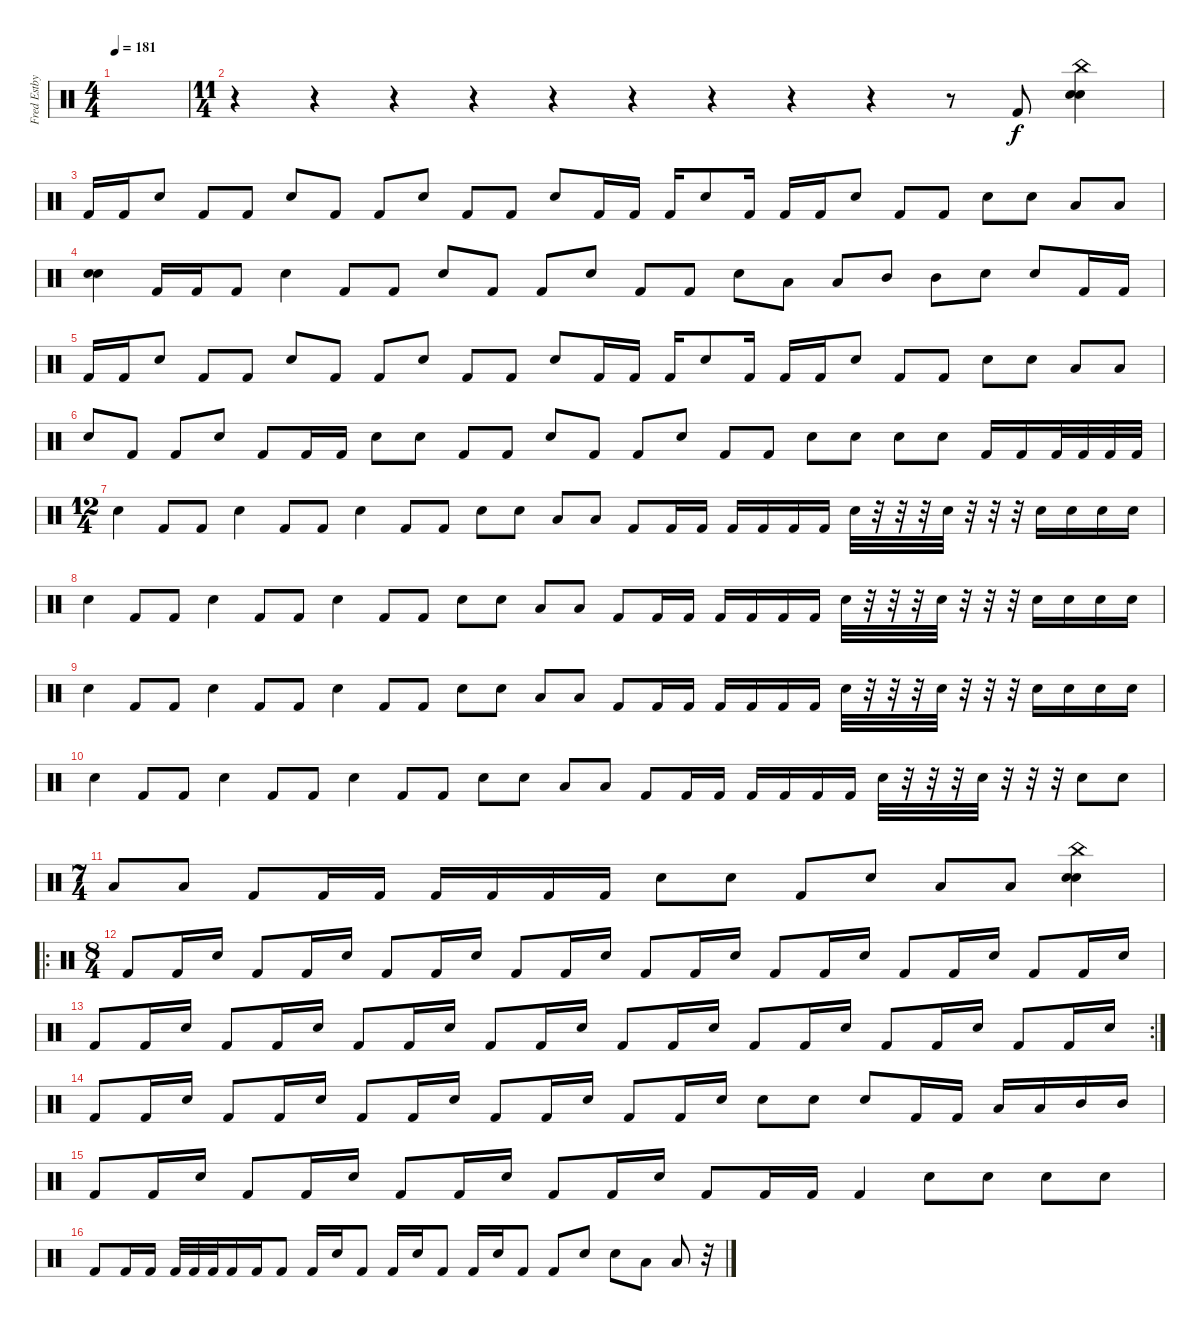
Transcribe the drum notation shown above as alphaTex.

\track ("Fred Estby" "Fred Estby") {instrument percussion}
\staff {score}
\articulation defaults
\ts (4 4)
\tempo 181
\clef neutral
\ks c
|
\ts (11 4)
r.4 r.4 r.4 r.4 r.4 r.4 r.4 r.4 r.4 r.8 "Kick (hit) 2".8 ("Electric Snare (hit)" "Electric Snare (hit)" "China (hit)").4 |
"Kick (hit) 2".16 "Kick (hit) 2".16 "Electric Snare (hit)".8 "Kick (hit) 2".8 "Kick (hit) 2".8 "Electric Snare (hit)".8 "Kick (hit) 2".8 "Kick (hit) 2".8 "Electric Snare (hit)".8 "Kick (hit) 2".8 "Kick (hit) 2".8 "Electric Snare (hit)".8 "Kick (hit) 2".16 "Kick (hit) 2".16 "Kick (hit) 2".16 "Electric Snare (hit)".8 "Kick (hit) 2".16 "Kick (hit) 2".16 "Kick (hit) 2".16 "Electric Snare (hit)".8 "Kick (hit) 2".8 "Kick (hit) 2".8 "Electric Snare (hit)".8 "Electric Snare (hit)".8 "Low Tom (hit)".8 "Low Tom (hit)".8 |
("Electric Snare (hit)" "Electric Snare (hit)").4 "Kick (hit) 2".16 "Kick (hit) 2".16 "Kick (hit) 2".8 "Electric Snare (hit)".4 "Kick (hit) 2".8 "Kick (hit) 2".8 "Electric Snare (hit)".8 "Kick (hit) 2".8 "Kick (hit) 2".8 "Electric Snare (hit)".8 "Kick (hit) 2".8 "Kick (hit) 2".8 "Electric Snare (hit)".8 "Low Tom (hit)".8 "Low Tom (hit)".8 "Mid Tom (hit)".8 "Mid Tom (hit)".8 "Electric Snare (hit)".8 "Electric Snare (hit)".8 "Kick (hit) 2".16 "Kick (hit) 2".16 |
"Kick (hit) 2".16 "Kick (hit) 2".16 "Electric Snare (hit)".8 "Kick (hit) 2".8 "Kick (hit) 2".8 "Electric Snare (hit)".8 "Kick (hit) 2".8 "Kick (hit) 2".8 "Electric Snare (hit)".8 "Kick (hit) 2".8 "Kick (hit) 2".8 "Electric Snare (hit)".8 "Kick (hit) 2".16 "Kick (hit) 2".16 "Kick (hit) 2".16 "Electric Snare (hit)".8 "Kick (hit) 2".16 "Kick (hit) 2".16 "Kick (hit) 2".16 "Electric Snare (hit)".8 "Kick (hit) 2".8 "Kick (hit) 2".8 "Electric Snare (hit)".8 "Electric Snare (hit)".8 "Low Tom (hit)".8 "Low Tom (hit)".8 |
"Electric Snare (hit)".8 "Kick (hit) 2".8 "Kick (hit) 2".8 "Electric Snare (hit)".8 "Kick (hit) 2".8 "Kick (hit) 2".16 "Kick (hit) 2".16 "Electric Snare (hit)".8 "Electric Snare (hit)".8 "Kick (hit) 2".8 "Kick (hit) 2".8 "Electric Snare (hit)".8 "Kick (hit) 2".8 "Kick (hit) 2".8 "Electric Snare (hit)".8 "Kick (hit) 2".8 "Kick (hit) 2".8 "Electric Snare (hit)".8 "Electric Snare (hit)".8 "Electric Snare (hit)".8 "Electric Snare (hit)".8 "Kick (hit) 2".16 "Kick (hit) 2".16 "Kick (hit) 2".32 "Kick (hit) 2".32 "Kick (hit) 2".32 "Kick (hit) 2".32 |
\ts (12 4)
"Electric Snare (hit)".4 "Kick (hit) 2".8 "Kick (hit) 2".8 "Electric Snare (hit)".4 "Kick (hit) 2".8 "Kick (hit) 2".8 "Electric Snare (hit)".4 "Kick (hit) 2".8 "Kick (hit) 2".8 "Electric Snare (hit)".8 "Electric Snare (hit)".8 "Low Tom (hit)".8 "Low Tom (hit)".8 "Kick (hit) 2".8 "Kick (hit) 2".16 "Kick (hit) 2".16 "Kick (hit) 2".16 "Kick (hit) 2".16 "Kick (hit) 2".16 "Kick (hit) 2".16 "Electric Snare (hit)".32 r.32 r.32 r.32 "Electric Snare (hit)".32 r.32 r.32 r.32 "Electric Snare (hit)".16 "Electric Snare (hit)".16 "Electric Snare (hit)".16 "Electric Snare (hit)".16 |
"Electric Snare (hit)".4 "Kick (hit) 2".8 "Kick (hit) 2".8 "Electric Snare (hit)".4 "Kick (hit) 2".8 "Kick (hit) 2".8 "Electric Snare (hit)".4 "Kick (hit) 2".8 "Kick (hit) 2".8 "Electric Snare (hit)".8 "Electric Snare (hit)".8 "Low Tom (hit)".8 "Low Tom (hit)".8 "Kick (hit) 2".8 "Kick (hit) 2".16 "Kick (hit) 2".16 "Kick (hit) 2".16 "Kick (hit) 2".16 "Kick (hit) 2".16 "Kick (hit) 2".16 "Electric Snare (hit)".32 r.32 r.32 r.32 "Electric Snare (hit)".32 r.32 r.32 r.32 "Electric Snare (hit)".16 "Electric Snare (hit)".16 "Electric Snare (hit)".16 "Electric Snare (hit)".16 |
"Electric Snare (hit)".4 "Kick (hit) 2".8 "Kick (hit) 2".8 "Electric Snare (hit)".4 "Kick (hit) 2".8 "Kick (hit) 2".8 "Electric Snare (hit)".4 "Kick (hit) 2".8 "Kick (hit) 2".8 "Electric Snare (hit)".8 "Electric Snare (hit)".8 "Low Tom (hit)".8 "Low Tom (hit)".8 "Kick (hit) 2".8 "Kick (hit) 2".16 "Kick (hit) 2".16 "Kick (hit) 2".16 "Kick (hit) 2".16 "Kick (hit) 2".16 "Kick (hit) 2".16 "Electric Snare (hit)".32 r.32 r.32 r.32 "Electric Snare (hit)".32 r.32 r.32 r.32 "Electric Snare (hit)".16 "Electric Snare (hit)".16 "Electric Snare (hit)".16 "Electric Snare (hit)".16 |
"Electric Snare (hit)".4 "Kick (hit) 2".8 "Kick (hit) 2".8 "Electric Snare (hit)".4 "Kick (hit) 2".8 "Kick (hit) 2".8 "Electric Snare (hit)".4 "Kick (hit) 2".8 "Kick (hit) 2".8 "Electric Snare (hit)".8 "Electric Snare (hit)".8 "Low Tom (hit)".8 "Low Tom (hit)".8 "Kick (hit) 2".8 "Kick (hit) 2".16 "Kick (hit) 2".16 "Kick (hit) 2".16 "Kick (hit) 2".16 "Kick (hit) 2".16 "Kick (hit) 2".16 "Electric Snare (hit)".32 r.32 r.32 r.32 "Electric Snare (hit)".32 r.32 r.32 r.32 "Electric Snare (hit)".8 "Electric Snare (hit)".8 |
\ts (7 4)
"Low Tom (hit)".8 "Low Tom (hit)".8 "Kick (hit) 2".8 "Kick (hit) 2".16 "Kick (hit) 2".16 "Kick (hit) 2".16 "Kick (hit) 2".16 "Kick (hit) 2".16 "Kick (hit) 2".16 "Electric Snare (hit)".8 "Electric Snare (hit)".8 "Kick (hit) 2".8 "Electric Snare (hit)".8 "Low Tom (hit)".8 "Low Tom (hit)".8 ("Electric Snare (hit)" "Electric Snare (hit)" "China (hit)").4 |
\ro
\ts (8 4)
"Kick (hit) 2".8 "Kick (hit) 2".16 "Electric Snare (hit)".16 "Kick (hit) 2".8 "Kick (hit) 2".16 "Electric Snare (hit)".16 "Kick (hit) 2".8 "Kick (hit) 2".16 "Electric Snare (hit)".16 "Kick (hit) 2".8 "Kick (hit) 2".16 "Electric Snare (hit)".16 "Kick (hit) 2".8 "Kick (hit) 2".16 "Electric Snare (hit)".16 "Kick (hit) 2".8 "Kick (hit) 2".16 "Electric Snare (hit)".16 "Kick (hit) 2".8 "Kick (hit) 2".16 "Electric Snare (hit)".16 "Kick (hit) 2".8 "Kick (hit) 2".16 "Electric Snare (hit)".16 |
\rc 2 "Kick (hit) 2".8 "Kick (hit) 2".16 "Electric Snare (hit)".16 "Kick (hit) 2".8 "Kick (hit) 2".16 "Electric Snare (hit)".16 "Kick (hit) 2".8 "Kick (hit) 2".16 "Electric Snare (hit)".16 "Kick (hit) 2".8 "Kick (hit) 2".16 "Electric Snare (hit)".16 "Kick (hit) 2".8 "Kick (hit) 2".16 "Electric Snare (hit)".16 "Kick (hit) 2".8 "Kick (hit) 2".16 "Electric Snare (hit)".16 "Kick (hit) 2".8 "Kick (hit) 2".16 "Electric Snare (hit)".16 "Kick (hit) 2".8 "Kick (hit) 2".16 "Electric Snare (hit)".16
|
"Kick (hit) 2".8 "Kick (hit) 2".16 "Electric Snare (hit)".16 "Kick (hit) 2".8 "Kick (hit) 2".16 "Electric Snare (hit)".16 "Kick (hit) 2".8 "Kick (hit) 2".16 "Electric Snare (hit)".16 "Kick (hit) 2".8 "Kick (hit) 2".16 "Electric Snare (hit)".16 "Kick (hit) 2".8 "Kick (hit) 2".16 "Electric Snare (hit)".16 "Electric Snare (hit)".8 "Electric Snare (hit)".8 "Electric Snare (hit)".8 "Kick (hit) 2".16 "Kick (hit) 2".16 "Low Tom (hit)".16 "Low Tom (hit)".16 "Mid Tom (hit)".16 "Mid Tom (hit)".16 |
"Kick (hit) 2".8 "Kick (hit) 2".16 "Electric Snare (hit)".16 "Kick (hit) 2".8 "Kick (hit) 2".16 "Electric Snare (hit)".16 "Kick (hit) 2".8 "Kick (hit) 2".16 "Electric Snare (hit)".16 "Kick (hit) 2".8 "Kick (hit) 2".16 "Electric Snare (hit)".16 "Kick (hit) 2".8 "Kick (hit) 2".16 "Kick (hit) 2".16 "Kick (hit) 2".4 "Electric Snare (hit)".8 "Electric Snare (hit)".8 "Electric Snare (hit)".8 "Electric Snare (hit)".8 |
"Kick (hit) 2".8 "Kick (hit) 2".16 "Kick (hit) 2".16 "Kick (hit) 2".32 "Kick (hit) 2".32 "Kick (hit) 2".32 "Kick (hit) 2".16 "Kick (hit) 2".16 "Kick (hit) 2".8 "Kick (hit) 2".16 "Electric Snare (hit)".16 "Kick (hit) 2".8 "Kick (hit) 2".16 "Electric Snare (hit)".16 "Kick (hit) 2".8 "Kick (hit) 2".16 "Electric Snare (hit)".16 "Kick (hit) 2".8 "Kick (hit) 2".8 "Electric Snare (hit)".8 "Electric Snare (hit)".8 "Low Tom (hit)".8 "Low Tom (hit)".8 r.32
